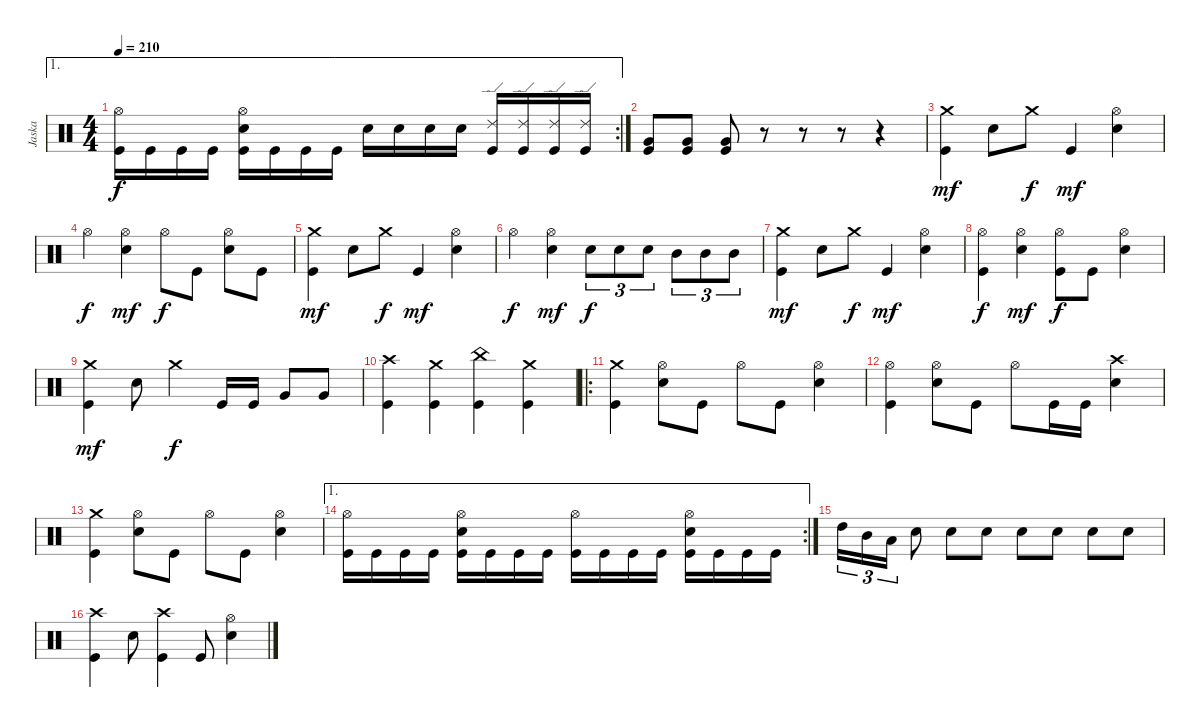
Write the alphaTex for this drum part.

\track ("Jaska" "Jaska") {instrument percussion}
\staff {score}
\articulation defaults
\ae 1
\rc 2
\ts (4 4)
\tempo 210
\clef neutral
\ks c
("Hi-Hat (open)" "Kick (hit)").16{dy f} "Kick (hit)".16 "Kick (hit)".16 "Kick (hit)".16 ("Hi-Hat (open)" "Electric Snare (hit)" "Kick (hit)").16 "Kick (hit)".16 "Kick (hit)".16 "Kick (hit)".16 "Electric Snare (hit)".16 "Electric Snare (hit)".16 "Electric Snare (hit)".16 "Electric Snare (hit)".16 ("Ride (edge) 2" "Kick (hit)").16 ("Ride (edge) 2" "Kick (hit)").16 ("Ride (edge) 2" "Kick (hit)").16 ("Ride (edge) 2" "Kick (hit)").16 |
("Very Low Tom (hit)" "Kick (hit)").8 ("Very Low Tom (hit)" "Kick (hit)").8 ("Very Low Tom (hit)" "Kick (hit)").8 r.8 r.8 r.8 r.4 |
("Crash medium (hit)" "Kick (hit)").4{dy mf} "Electric Snare (hit)".8 "Crash medium (hit)".8{dy f} "Kick (hit)".4{dy mf} ("Hi-Hat (open)" "Electric Snare (hit)").4 |
"Hi-Hat (open)".4{dy f} ("Hi-Hat (open)" "Electric Snare (hit)").4{dy mf} "Hi-Hat (open)".8{dy f} "Kick (hit)".8 ("Hi-Hat (open)" "Electric Snare (hit)").8 "Kick (hit)".8 |
("Crash medium (hit)" "Kick (hit)").4{dy mf} "Electric Snare (hit)".8 "Crash medium (hit)".8{dy f} "Kick (hit)".4{dy mf} ("Hi-Hat (open)" "Electric Snare (hit)").4 |
"Hi-Hat (open)".4{dy f} ("Hi-Hat (open)" "Electric Snare (hit)").4{dy mf} "Electric Snare (hit)".8{tu (3 2) dy f} "Electric Snare (hit)".8{tu (3 2)} "Electric Snare (hit)".8{tu (3 2)} "Mid Tom (hit)".8{tu (3 2)} "Mid Tom (hit)".8{tu (3 2)} "Mid Tom (hit)".8{tu (3 2)} |
("Crash medium (hit)" "Kick (hit)").4{dy mf} "Electric Snare (hit)".8 "Crash medium (hit)".8{dy f} "Kick (hit)".4{dy mf} ("Hi-Hat (open)" "Electric Snare (hit)").4 |
("Hi-Hat (open)" "Kick (hit)").4{dy f} ("Hi-Hat (open)" "Electric Snare (hit)").4{dy mf} ("Hi-Hat (open)" "Kick (hit)").8{dy f} "Kick (hit)".8 ("Hi-Hat (open)" "Electric Snare (hit)").4 |
("Crash medium (hit)" "Kick (hit)").4{dy mf} "Electric Snare (hit)".8 "Crash medium (hit)".4{dy f} "Kick (hit)".16 "Kick (hit)".16 "Very Low Tom (hit)".8 "Very Low Tom (hit)".8 |
("Crash high (hit)" "Kick (hit)").4 ("Crash medium (hit)" "Kick (hit)").4 ("China (hit)" "Kick (hit)").4 ("Crash medium (hit)" "Kick (hit)").4 |
\ro
("Crash medium (hit)" "Kick (hit)").4 ("Hi-Hat (open)" "Electric Snare (hit)").8 "Kick (hit)".8 "Hi-Hat (open)".8 "Kick (hit)".8 ("Hi-Hat (open)" "Electric Snare (hit)").4 |
("Hi-Hat (open)" "Kick (hit)").4 ("Hi-Hat (open)" "Electric Snare (hit)").8 "Kick (hit)".8 "Hi-Hat (open)".8 "Kick (hit)".16 "Kick (hit)".16 ("Crash high (hit)" "Electric Snare (hit)").4 |
("Crash medium (hit)" "Kick (hit)").4 ("Hi-Hat (open)" "Electric Snare (hit)").8 "Kick (hit)".8 "Hi-Hat (open)".8 "Kick (hit)".8 ("Hi-Hat (open)" "Electric Snare (hit)").4 |
\ae 1
\rc 2
("Hi-Hat (open)" "Kick (hit)").16 "Kick (hit)".16 "Kick (hit)".16 "Kick (hit)".16 ("Hi-Hat (open)" "Electric Snare (hit)" "Kick (hit)").16 "Kick (hit)".16 "Kick (hit)".16 "Kick (hit)".16 ("Hi-Hat (open)" "Kick (hit)").16 "Kick (hit)".16 "Kick (hit)".16 "Kick (hit)".16 ("Hi-Hat (open)" "Electric Snare (hit)" "Kick (hit)").16 "Kick (hit)".16 "Kick (hit)".16 "Kick (hit)".16 |
"High Tom (hit)".16{tu (3 2)} "Mid Tom (hit)".16{tu (3 2)} "Low Tom (hit)".16{tu (3 2)} "Electric Snare (hit)".8 "Electric Snare (hit)".8 "Electric Snare (hit)".8 "Electric Snare (hit)".8 "Electric Snare (hit)".8 "Electric Snare (hit)".8 "Electric Snare (hit)".8 |
("Crash high (hit)" "Kick (hit)").4 "Electric Snare (hit)".8 ("Crash high (hit)" "Kick (hit)").4 "Kick (hit)".8 ("Hi-Hat (open)" "Electric Snare (hit)").4
